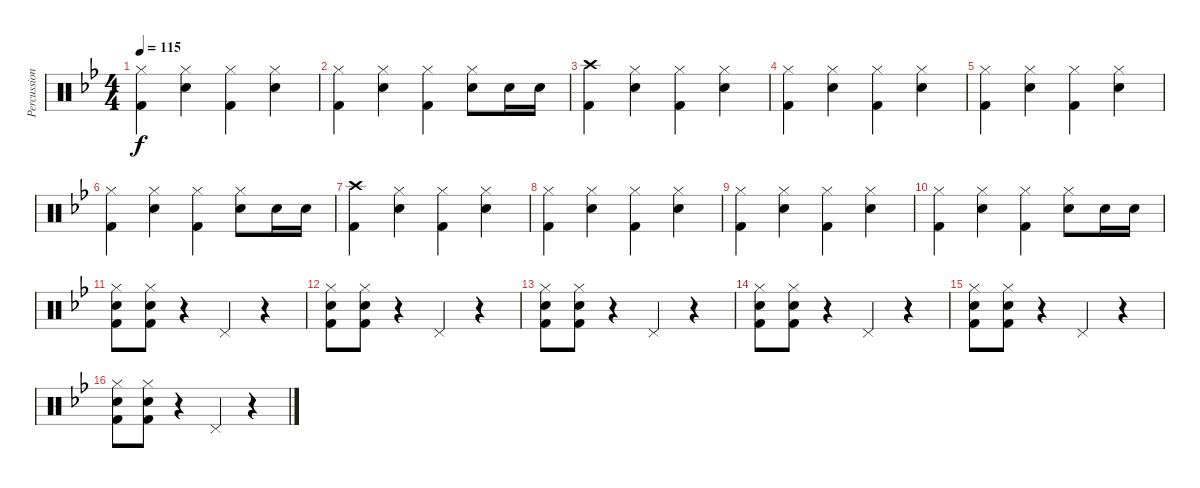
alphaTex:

\track ("Percussion" "Percussion") {instrument percussion}
\staff {score}
\articulation defaults
\ts (4 4)
\tempo 115
\clef neutral
\ks bb
("Hi-Hat (closed)" "Kick (hit) 2").4{dy f} ("Hi-Hat (closed)" "Snare (hit) 2").4 ("Hi-Hat (closed)" "Kick (hit) 2").4 ("Hi-Hat (closed)" "Snare (hit) 2").4 |
("Hi-Hat (closed)" "Kick (hit) 2").4 ("Hi-Hat (closed)" "Snare (hit) 2").4 ("Hi-Hat (closed)" "Kick (hit) 2").4 ("Hi-Hat (closed)" "Snare (hit) 2").8 "Snare (hit) 2".16 "Snare (hit) 2".16 |
("Crash high (hit)" "Kick (hit) 2").4 ("Hi-Hat (closed)" "Snare (hit) 2").4 ("Hi-Hat (closed)" "Kick (hit) 2").4 ("Hi-Hat (closed)" "Snare (hit) 2").4 |
("Hi-Hat (closed)" "Kick (hit) 2").4 ("Hi-Hat (closed)" "Snare (hit) 2").4 ("Hi-Hat (closed)" "Kick (hit) 2").4 ("Hi-Hat (closed)" "Snare (hit) 2").4 |
("Hi-Hat (closed)" "Kick (hit) 2").4 ("Hi-Hat (closed)" "Snare (hit) 2").4 ("Hi-Hat (closed)" "Kick (hit) 2").4 ("Hi-Hat (closed)" "Snare (hit) 2").4 |
("Hi-Hat (closed)" "Kick (hit) 2").4 ("Hi-Hat (closed)" "Snare (hit) 2").4 ("Hi-Hat (closed)" "Kick (hit) 2").4 ("Hi-Hat (closed)" "Snare (hit) 2").8 "Snare (hit) 2".16 "Snare (hit) 2".16 |
("Crash high (hit)" "Kick (hit) 2").4 ("Hi-Hat (closed)" "Snare (hit) 2").4 ("Hi-Hat (closed)" "Kick (hit) 2").4 ("Hi-Hat (closed)" "Snare (hit) 2").4 |
("Hi-Hat (closed)" "Kick (hit) 2").4 ("Hi-Hat (closed)" "Snare (hit) 2").4 ("Hi-Hat (closed)" "Kick (hit) 2").4 ("Hi-Hat (closed)" "Snare (hit) 2").4 |
("Hi-Hat (closed)" "Kick (hit) 2").4 ("Hi-Hat (closed)" "Snare (hit) 2").4 ("Hi-Hat (closed)" "Kick (hit) 2").4 ("Hi-Hat (closed)" "Snare (hit) 2").4 |
("Hi-Hat (closed)" "Kick (hit) 2").4 ("Hi-Hat (closed)" "Snare (hit) 2").4 ("Hi-Hat (closed)" "Kick (hit) 2").4 ("Hi-Hat (closed)" "Snare (hit) 2").8 "Snare (hit) 2".16 "Snare (hit) 2".16 |
("Hi-Hat (closed)" "Snare (hit) 2" "Kick (hit) 2").8 ("Hi-Hat (closed)" "Snare (hit) 2" "Kick (hit) 2").8 r.4 "Pedal Hi-Hat (hit)".4 r.4 |
("Hi-Hat (closed)" "Snare (hit) 2" "Kick (hit) 2").8 ("Hi-Hat (closed)" "Snare (hit) 2" "Kick (hit) 2").8 r.4 "Pedal Hi-Hat (hit)".4 r.4 |
("Hi-Hat (closed)" "Snare (hit) 2" "Kick (hit) 2").8 ("Hi-Hat (closed)" "Snare (hit) 2" "Kick (hit) 2").8 r.4 "Pedal Hi-Hat (hit)".4 r.4 |
("Hi-Hat (closed)" "Snare (hit) 2" "Kick (hit) 2").8 ("Hi-Hat (closed)" "Snare (hit) 2" "Kick (hit) 2").8 r.4 "Pedal Hi-Hat (hit)".4 r.4 |
("Hi-Hat (closed)" "Snare (hit) 2" "Kick (hit) 2").8 ("Hi-Hat (closed)" "Snare (hit) 2" "Kick (hit) 2").8 r.4 "Pedal Hi-Hat (hit)".4 r.4 |
("Hi-Hat (closed)" "Snare (hit) 2" "Kick (hit) 2").8 ("Hi-Hat (closed)" "Snare (hit) 2" "Kick (hit) 2").8 r.4 "Pedal Hi-Hat (hit)".4 r.4
